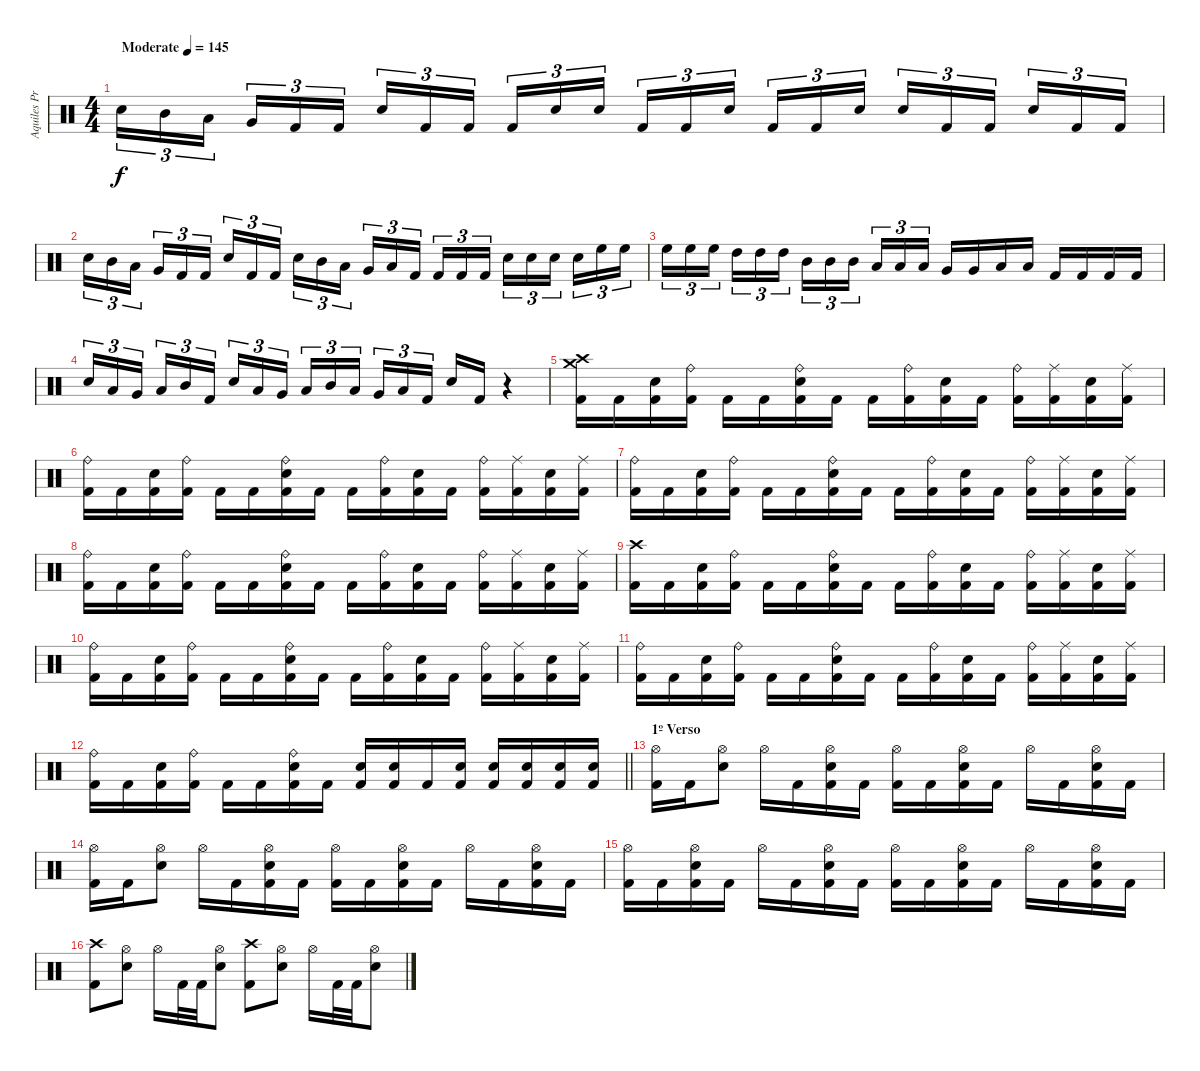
\track ("Aquiles Priester" "Aquiles Pr") {instrument percussion}
\staff {score}
\articulation defaults
\ts (4 4)
\tempo (145 "Moderate")
\clef neutral
\ks c "Electric Snare (hit)".16{tu (3 2) dy f} "Mid Tom (hit)".16{tu (3 2)} "Low Tom (hit)".16{tu (3 2) beam splitsecondary} "Very Low Tom (hit)".16{tu (3 2)} "Kick (hit) 2".16{tu (3 2)} "Kick (hit) 2".16{tu (3 2)} "Electric Snare (hit)".16{tu (3 2)} "Kick (hit) 2".16{tu (3 2)} "Kick (hit) 2".16{tu (3 2) beam splitsecondary} "Kick (hit) 2".16{tu (3 2)} "Electric Snare (hit)".16{tu (3 2)} "Electric Snare (hit)".16{tu (3 2)} "Kick (hit) 2".16{tu (3 2)} "Kick (hit) 2".16{tu (3 2)} "Electric Snare (hit)".16{tu (3 2) beam splitsecondary} "Kick (hit) 2".16{tu (3 2)} "Kick (hit) 2".16{tu (3 2)} "Electric Snare (hit)".16{tu (3 2)} "Electric Snare (hit)".16{tu (3 2)} "Kick (hit) 2".16{tu (3 2)} "Kick (hit) 2".16{tu (3 2) beam splitsecondary} "Electric Snare (hit)".16{tu (3 2)} "Kick (hit) 2".16{tu (3 2)} "Kick (hit) 2".16{tu (3 2)}
|
"Electric Snare (hit)".16{tu (3 2)} "Mid Tom (hit)".16{tu (3 2)} "Low Tom (hit)".16{tu (3 2) beam splitsecondary} "Very Low Tom (hit)".16{tu (3 2)} "Kick (hit) 2".16{tu (3 2)} "Kick (hit) 2".16{tu (3 2)} "Electric Snare (hit)".16{tu (3 2)} "Kick (hit) 2".16{tu (3 2)} "Kick (hit) 2".16{tu (3 2) beam splitsecondary} "Electric Snare (hit)".16{tu (3 2)} "Mid Tom (hit)".16{tu (3 2)} "Low Tom (hit)".16{tu (3 2)} "Very Low Tom (hit)".16{tu (3 2)} "Low Floor Tom (hit)".16{tu (3 2)} "Kick (hit) 2".16{tu (3 2) beam splitsecondary} "Kick (hit) 2".16{tu (3 2)} "Kick (hit) 2".16{tu (3 2)} "Kick (hit) 2".16{tu (3 2)} "Electric Snare (hit)".16{tu (3 2)} "Electric Snare (hit)".16{tu (3 2)} "Electric Snare (hit)".16{tu (3 2) beam splitsecondary} "Electric Snare (hit)".16{tu (3 2)} "High Floor Tom (hit)".16{tu (3 2)} "High Floor Tom (hit)".16{tu (3 2)} |
"High Floor Tom (hit)".16{tu (3 2)} "High Floor Tom (hit)".16{tu (3 2)} "High Floor Tom (hit)".16{tu (3 2) beam splitsecondary} "High Tom (hit)".16{tu (3 2)} "High Tom (hit)".16{tu (3 2)} "High Tom (hit)".16{tu (3 2)} "Mid Tom (hit)".16{tu (3 2)} "Mid Tom (hit)".16{tu (3 2)} "Mid Tom (hit)".16{tu (3 2) beam splitsecondary} "Low Tom (hit)".16{tu (3 2)} "Low Tom (hit)".16{tu (3 2)} "Low Tom (hit)".16{tu (3 2)} "Very Low Tom (hit)".16 "Very Low Tom (hit)".16 "Low Floor Tom (hit)".16 "Low Floor Tom (hit)".16 "Kick (hit) 2".16 "Kick (hit) 2".16 "Kick (hit) 2".16 "Kick (hit) 2".16 |
"Electric Snare (hit)".16{tu (3 2)} "Low Floor Tom (hit)".16{tu (3 2)} "Very Low Tom (hit)".16{tu (3 2) beam splitsecondary} "Low Tom (hit)".16{tu (3 2)} "Mid Tom (hit)".16{tu (3 2)} "Kick (hit) 2".16{tu (3 2)} "Electric Snare (hit)".16{tu (3 2)} "Low Floor Tom (hit)".16{tu (3 2)} "Very Low Tom (hit)".16{tu (3 2) beam splitsecondary} "Low Tom (hit)".16{tu (3 2)} "Mid Tom (hit)".16{tu (3 2)} "Low Tom (hit)".16{tu (3 2)} "Very Low Tom (hit)".16{tu (3 2)} "Low Floor Tom (hit)".16{tu (3 2)} "Kick (hit) 2".16{tu (3 2) beam splitsecondary} "Electric Snare (hit)".16 "Kick (hit) 2".16 r.4 |
("Crash medium (hit)" "Crash high (hit)" "Kick (hit) 2").16 "Kick (hit) 2".16 ("Electric Snare (hit)" "Kick (hit) 2").16 ("Ride (bell)" "Kick (hit) 2").16 "Kick (hit) 2".16 "Kick (hit) 2".16 ("Ride (bell)" "Electric Snare (hit)" "Kick (hit) 2").16 "Kick (hit) 2".16 "Kick (hit) 2".16 ("Ride (bell)" "Kick (hit) 2").16 ("Electric Snare (hit)" "Kick (hit) 2").16 "Kick (hit) 2".16 ("Ride (bell)" "Kick (hit) 2").16 ("Ride (middle)" "Kick (hit) 2").16 ("Electric Snare (hit)" "Kick (hit) 2").16 ("Ride (middle)" "Kick (hit) 2").16 |
("Ride (bell)" "Kick (hit) 2").16 "Kick (hit) 2".16 ("Electric Snare (hit)" "Kick (hit) 2").16 ("Ride (bell)" "Kick (hit) 2").16 "Kick (hit) 2".16 "Kick (hit) 2".16 ("Ride (bell)" "Electric Snare (hit)" "Kick (hit) 2").16 "Kick (hit) 2".16 "Kick (hit) 2".16 ("Ride (bell)" "Kick (hit) 2").16 ("Electric Snare (hit)" "Kick (hit) 2").16 "Kick (hit) 2".16 ("Ride (bell)" "Kick (hit) 2").16 ("Ride (middle)" "Kick (hit) 2").16 ("Electric Snare (hit)" "Kick (hit) 2").16 ("Ride (middle)" "Kick (hit) 2").16 |
("Ride (bell)" "Kick (hit) 2").16 "Kick (hit) 2".16 ("Electric Snare (hit)" "Kick (hit) 2").16 ("Ride (bell)" "Kick (hit) 2").16 "Kick (hit) 2".16 "Kick (hit) 2".16 ("Ride (bell)" "Electric Snare (hit)" "Kick (hit) 2").16 "Kick (hit) 2".16 "Kick (hit) 2".16 ("Ride (bell)" "Kick (hit) 2").16 ("Electric Snare (hit)" "Kick (hit) 2").16 "Kick (hit) 2".16 ("Ride (bell)" "Kick (hit) 2").16 ("Ride (middle)" "Kick (hit) 2").16 ("Electric Snare (hit)" "Kick (hit) 2").16 ("Ride (middle)" "Kick (hit) 2").16 |
("Ride (bell)" "Kick (hit) 2").16 "Kick (hit) 2".16 ("Electric Snare (hit)" "Kick (hit) 2").16 ("Ride (bell)" "Kick (hit) 2").16 "Kick (hit) 2".16 "Kick (hit) 2".16 ("Ride (bell)" "Electric Snare (hit)" "Kick (hit) 2").16 "Kick (hit) 2".16 "Kick (hit) 2".16 ("Ride (bell)" "Kick (hit) 2").16 ("Electric Snare (hit)" "Kick (hit) 2").16 "Kick (hit) 2".16 ("Ride (bell)" "Kick (hit) 2").16 ("Ride (middle)" "Kick (hit) 2").16 ("Electric Snare (hit)" "Kick (hit) 2").16 ("Ride (middle)" "Kick (hit) 2").16 |
("Crash high (hit)" "Kick (hit) 2").16 "Kick (hit) 2".16 ("Electric Snare (hit)" "Kick (hit) 2").16 ("Ride (bell)" "Kick (hit) 2").16 "Kick (hit) 2".16 "Kick (hit) 2".16 ("Ride (bell)" "Electric Snare (hit)" "Kick (hit) 2").16 "Kick (hit) 2".16 "Kick (hit) 2".16 ("Ride (bell)" "Kick (hit) 2").16 ("Electric Snare (hit)" "Kick (hit) 2").16 "Kick (hit) 2".16 ("Ride (bell)" "Kick (hit) 2").16 ("Ride (middle)" "Kick (hit) 2").16 ("Electric Snare (hit)" "Kick (hit) 2").16 ("Ride (middle)" "Kick (hit) 2").16 |
("Ride (bell)" "Kick (hit) 2").16 "Kick (hit) 2".16 ("Electric Snare (hit)" "Kick (hit) 2").16 ("Ride (bell)" "Kick (hit) 2").16 "Kick (hit) 2".16 "Kick (hit) 2".16 ("Ride (bell)" "Electric Snare (hit)" "Kick (hit) 2").16 "Kick (hit) 2".16 "Kick (hit) 2".16 ("Ride (bell)" "Kick (hit) 2").16 ("Electric Snare (hit)" "Kick (hit) 2").16 "Kick (hit) 2".16 ("Ride (bell)" "Kick (hit) 2").16 ("Ride (middle)" "Kick (hit) 2").16 ("Electric Snare (hit)" "Kick (hit) 2").16 ("Ride (middle)" "Kick (hit) 2").16 |
("Ride (bell)" "Kick (hit) 2").16 "Kick (hit) 2".16 ("Electric Snare (hit)" "Kick (hit) 2").16 ("Ride (bell)" "Kick (hit) 2").16 "Kick (hit) 2".16 "Kick (hit) 2".16 ("Ride (bell)" "Electric Snare (hit)" "Kick (hit) 2").16 "Kick (hit) 2".16 "Kick (hit) 2".16 ("Ride (bell)" "Kick (hit) 2").16 ("Electric Snare (hit)" "Kick (hit) 2").16 "Kick (hit) 2".16 ("Ride (bell)" "Kick (hit) 2").16 ("Ride (middle)" "Kick (hit) 2").16 ("Electric Snare (hit)" "Kick (hit) 2").16 ("Ride (middle)" "Kick (hit) 2").16 |
\barLineRight lightlight
("Ride (bell)" "Kick (hit) 2").16 "Kick (hit) 2".16 ("Electric Snare (hit)" "Kick (hit) 2").16 ("Ride (bell)" "Kick (hit) 2").16 "Kick (hit) 2".16 "Kick (hit) 2".16 ("Ride (bell)" "Electric Snare (hit)" "Kick (hit) 2").16 "Kick (hit) 2".16 ("Electric Snare (hit)" "Kick (hit) 2").16 ("Electric Snare (hit)" "Kick (hit) 2").16 "Kick (hit) 2".16 ("Electric Snare (hit)" "Kick (hit) 2").16 ("Electric Snare (hit)" "Kick (hit) 2").16 ("Electric Snare (hit)" "Kick (hit) 2").16 ("Electric Snare (hit)" "Kick (hit) 2").16 ("Electric Snare (hit)" "Kick (hit) 2").16 |
\section ("" "1º Verso")
("Hi-Hat (open)" "Kick (hit) 2").16 "Kick (hit) 2".16 ("Hi-Hat (open)" "Electric Snare (hit)").8 "Hi-Hat (open)".16 "Kick (hit) 2".16 ("Hi-Hat (open)" "Electric Snare (hit)" "Kick (hit) 2").16 "Kick (hit) 2".16 ("Hi-Hat (open)" "Kick (hit) 2").16 "Kick (hit) 2".16 ("Hi-Hat (open)" "Electric Snare (hit)" "Kick (hit) 2").16 "Kick (hit) 2".16 "Hi-Hat (open)".16 "Kick (hit) 2".16 ("Hi-Hat (open)" "Electric Snare (hit)" "Kick (hit) 2").16 "Kick (hit) 2".16 |
("Hi-Hat (open)" "Kick (hit) 2").16 "Kick (hit) 2".16 ("Hi-Hat (open)" "Electric Snare (hit)").8 "Hi-Hat (open)".16 "Kick (hit) 2".16 ("Hi-Hat (open)" "Electric Snare (hit)" "Kick (hit) 2").16 "Kick (hit) 2".16 ("Hi-Hat (open)" "Kick (hit) 2").16 "Kick (hit) 2".16 ("Hi-Hat (open)" "Electric Snare (hit)" "Kick (hit) 2").16 "Kick (hit) 2".16 "Hi-Hat (open)".16 "Kick (hit) 2".16 ("Hi-Hat (open)" "Electric Snare (hit)" "Kick (hit) 2").16 "Kick (hit) 2".16 |
("Hi-Hat (open)" "Kick (hit) 2").16 "Kick (hit) 2".16 ("Hi-Hat (open)" "Electric Snare (hit)" "Kick (hit) 2").16 "Kick (hit) 2".16 "Hi-Hat (open)".16 "Kick (hit) 2".16 ("Hi-Hat (open)" "Electric Snare (hit)" "Kick (hit) 2").16 "Kick (hit) 2".16 ("Hi-Hat (open)" "Kick (hit) 2").16 "Kick (hit) 2".16 ("Hi-Hat (open)" "Electric Snare (hit)" "Kick (hit) 2").16 "Kick (hit) 2".16 "Hi-Hat (open)".16 "Kick (hit) 2".16 ("Hi-Hat (open)" "Electric Snare (hit)" "Kick (hit) 2").16 "Kick (hit) 2".16 |
("Crash high (hit)" "Kick (hit) 2").8 ("Hi-Hat (open)" "Electric Snare (hit)").8 "Hi-Hat (open)".16 "Kick (hit) 2".32 "Kick (hit) 2".32 ("Hi-Hat (open)" "Electric Snare (hit)").8 ("Crash high (hit)" "Kick (hit) 2").8 ("Hi-Hat (open)" "Electric Snare (hit)").8 "Hi-Hat (open)".16 "Kick (hit) 2".32 "Kick (hit) 2".32 ("Hi-Hat (open)" "Electric Snare (hit)").8
